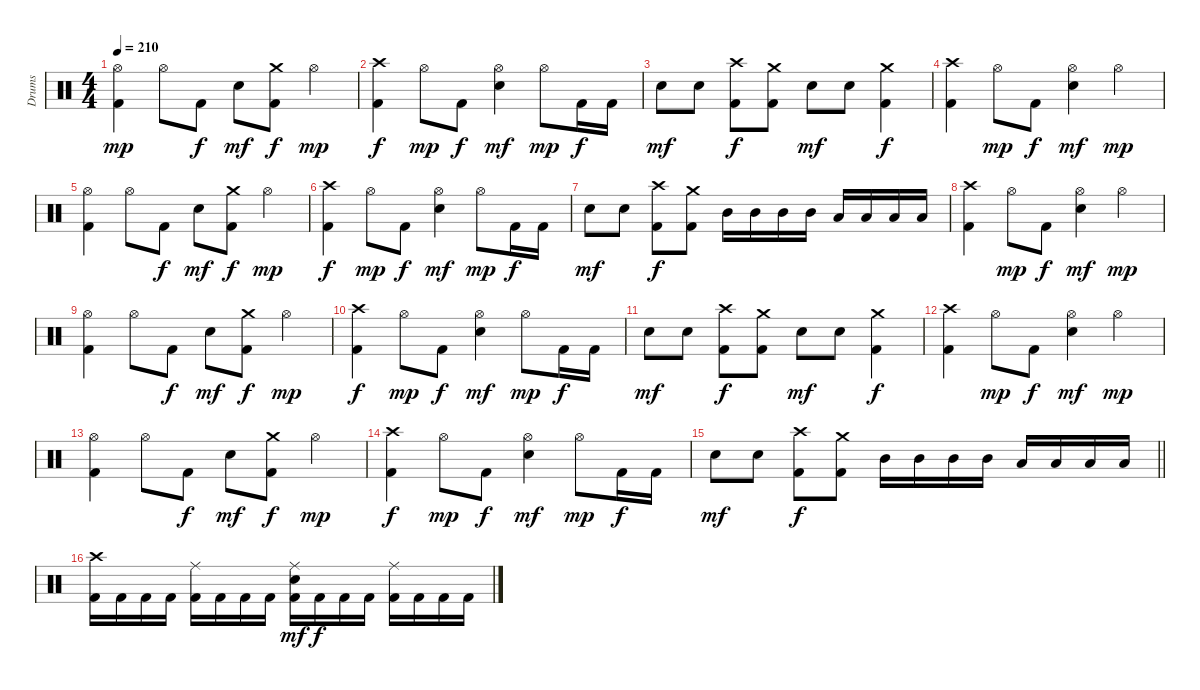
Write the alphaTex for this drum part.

\track ("Drums" "Drums") {instrument percussion}
\staff {score}
\articulation defaults
\ts (4 4)
\tempo 210
\clef neutral
\ks c
("Hi-Hat (open)" "Kick (hit) 2").4{dy mp} "Hi-Hat (open)".8 "Kick (hit) 2".8{dy f} "Electric Snare (hit)".8{dy mf} ("Crash medium (hit)" "Kick (hit) 2").8{dy f} "Hi-Hat (open)".4{dy mp} |
("Crash high (hit)" "Kick (hit) 2").4{dy f} "Hi-Hat (open)".8{dy mp} "Kick (hit) 2".8{dy f} ("Hi-Hat (open)" "Electric Snare (hit)").4{dy mf} "Hi-Hat (open)".8{dy mp} "Kick (hit) 2".16{dy f} "Kick (hit) 2".16 |
"Electric Snare (hit)".8{dy mf} "Electric Snare (hit)".8 ("Crash high (hit)" "Kick (hit) 2").8{dy f} ("Crash medium (hit)" "Kick (hit) 2").8 "Electric Snare (hit)".8{dy mf} "Electric Snare (hit)".8 ("Crash medium (hit)" "Kick (hit) 2").4{dy f} |
("Crash high (hit)" "Kick (hit) 2").4 "Hi-Hat (open)".8{dy mp} "Kick (hit) 2".8{dy f} ("Hi-Hat (open)" "Electric Snare (hit)").4{dy mf} "Hi-Hat (open)".4{dy mp} |
("Hi-Hat (open)" "Kick (hit) 2").4 "Hi-Hat (open)".8 "Kick (hit) 2".8{dy f} "Electric Snare (hit)".8{dy mf} ("Crash medium (hit)" "Kick (hit) 2").8{dy f} "Hi-Hat (open)".4{dy mp} |
("Crash high (hit)" "Kick (hit) 2").4{dy f} "Hi-Hat (open)".8{dy mp} "Kick (hit) 2".8{dy f} ("Hi-Hat (open)" "Electric Snare (hit)").4{dy mf} "Hi-Hat (open)".8{dy mp} "Kick (hit) 2".16{dy f} "Kick (hit) 2".16 |
"Electric Snare (hit)".8{dy mf} "Electric Snare (hit)".8 ("Crash high (hit)" "Kick (hit) 2").8{dy f} ("Crash medium (hit)" "Kick (hit) 2").8 "Mid Tom (hit)".16 "Mid Tom (hit)".16 "Mid Tom (hit)".16 "Mid Tom (hit)".16 "Low Tom (hit)".16 "Low Tom (hit)".16 "Low Tom (hit)".16 "Low Tom (hit)".16 |
("Crash high (hit)" "Kick (hit) 2").4 "Hi-Hat (open)".8{dy mp} "Kick (hit) 2".8{dy f} ("Hi-Hat (open)" "Electric Snare (hit)").4{dy mf} "Hi-Hat (open)".4{dy mp} |
("Hi-Hat (open)" "Kick (hit) 2").4 "Hi-Hat (open)".8 "Kick (hit) 2".8{dy f} "Electric Snare (hit)".8{dy mf} ("Crash medium (hit)" "Kick (hit) 2").8{dy f} "Hi-Hat (open)".4{dy mp} |
("Crash high (hit)" "Kick (hit) 2").4{dy f} "Hi-Hat (open)".8{dy mp} "Kick (hit) 2".8{dy f} ("Hi-Hat (open)" "Electric Snare (hit)").4{dy mf} "Hi-Hat (open)".8{dy mp} "Kick (hit) 2".16{dy f} "Kick (hit) 2".16 |
"Electric Snare (hit)".8{dy mf} "Electric Snare (hit)".8 ("Crash high (hit)" "Kick (hit) 2").8{dy f} ("Crash medium (hit)" "Kick (hit) 2").8 "Electric Snare (hit)".8{dy mf} "Electric Snare (hit)".8 ("Crash medium (hit)" "Kick (hit) 2").4{dy f} |
("Crash high (hit)" "Kick (hit) 2").4 "Hi-Hat (open)".8{dy mp} "Kick (hit) 2".8{dy f} ("Hi-Hat (open)" "Electric Snare (hit)").4{dy mf} "Hi-Hat (open)".4{dy mp} |
("Hi-Hat (open)" "Kick (hit) 2").4 "Hi-Hat (open)".8 "Kick (hit) 2".8{dy f} "Electric Snare (hit)".8{dy mf} ("Crash medium (hit)" "Kick (hit) 2").8{dy f} "Hi-Hat (open)".4{dy mp} |
("Crash high (hit)" "Kick (hit) 2").4{dy f} "Hi-Hat (open)".8{dy mp} "Kick (hit) 2".8{dy f} ("Hi-Hat (open)" "Electric Snare (hit)").4{dy mf} "Hi-Hat (open)".8{dy mp} "Kick (hit) 2".16{dy f} "Kick (hit) 2".16 |
\barLineRight lightlight "Electric Snare (hit)".8{dy mf} "Electric Snare (hit)".8
("Crash high (hit)" "Kick (hit) 2").8{dy f} ("Crash medium (hit)" "Kick (hit) 2").8 "Mid Tom (hit)".16 "Mid Tom (hit)".16 "Mid Tom (hit)".16 "Mid Tom (hit)".16 "Low Tom (hit)".16 "Low Tom (hit)".16 "Low Tom (hit)".16 "Low Tom (hit)".16 |
\section ("" "")
("Crash high (hit)" "Kick (hit) 2").16 "Kick (hit) 2".16 "Kick (hit) 2".16 "Kick (hit) 2".16 ("Ride (middle)" "Kick (hit) 2").16 "Kick (hit) 2".16 "Kick (hit) 2".16 "Kick (hit) 2".16 ("Ride (middle)" "Electric Snare (hit)" "Kick (hit) 2").16{dy mf} "Kick (hit) 2".16{dy f} "Kick (hit) 2".16 "Kick (hit) 2".16 ("Ride (middle)" "Kick (hit) 2").16 "Kick (hit) 2".16 "Kick (hit) 2".16 "Kick (hit) 2".16
